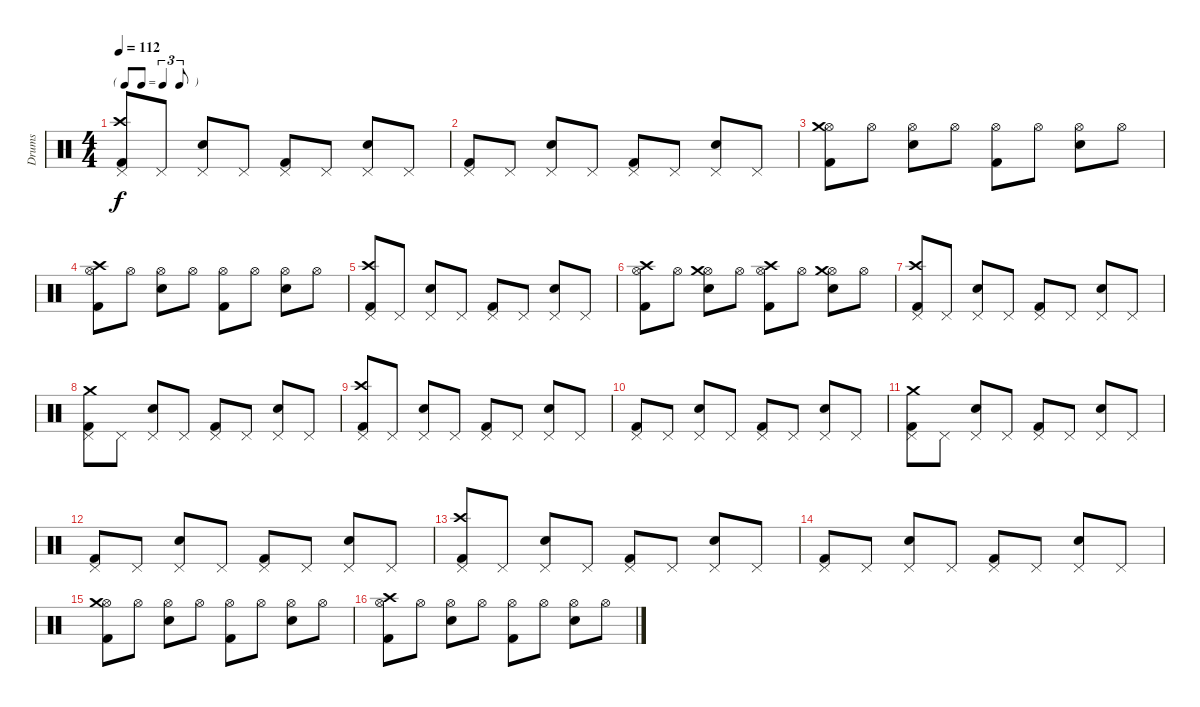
\track ("Drums" "Drums") {instrument percussion}
\staff {score}
\articulation defaults
\ts (4 4)
\tf triplet8th
\tempo 112
\clef neutral
\ks c
("Pedal Hi-Hat (hit)" "Crash high (hit)" "Kick (hit) 2").8{dy f} "Pedal Hi-Hat (hit)".8 ("Pedal Hi-Hat (hit)" "Snare (hit) 2").8 "Pedal Hi-Hat (hit)".8 ("Pedal Hi-Hat (hit)" "Kick (hit) 2").8 "Pedal Hi-Hat (hit)".8 ("Pedal Hi-Hat (hit)" "Snare (hit) 2").8 "Pedal Hi-Hat (hit)".8 |
("Pedal Hi-Hat (hit)" "Kick (hit) 2").8 "Pedal Hi-Hat (hit)".8 ("Pedal Hi-Hat (hit)" "Snare (hit) 2").8 "Pedal Hi-Hat (hit)".8 ("Pedal Hi-Hat (hit)" "Kick (hit) 2").8 "Pedal Hi-Hat (hit)".8 ("Pedal Hi-Hat (hit)" "Snare (hit) 2").8 "Pedal Hi-Hat (hit)".8 |
("Hi-Hat (open)" "Crash medium (hit)" "Kick (hit) 2").8 "Hi-Hat (open)".8 ("Hi-Hat (open)" "Snare (hit) 2").8 "Hi-Hat (open)".8 ("Hi-Hat (open)" "Kick (hit) 2").8 "Hi-Hat (open)".8 ("Hi-Hat (open)" "Snare (hit) 2").8 "Hi-Hat (open)".8 |
("Hi-Hat (open)" "Crash high (hit)" "Kick (hit) 2").8 "Hi-Hat (open)".8 ("Hi-Hat (open)" "Snare (hit) 2").8 "Hi-Hat (open)".8 ("Hi-Hat (open)" "Kick (hit) 2").8 "Hi-Hat (open)".8 ("Hi-Hat (open)" "Snare (hit) 2").8 "Hi-Hat (open)".8 |
("Pedal Hi-Hat (hit)" "Crash high (hit)" "Kick (hit) 2").8 "Pedal Hi-Hat (hit)".8 ("Pedal Hi-Hat (hit)" "Snare (hit) 2").8 "Pedal Hi-Hat (hit)".8 ("Pedal Hi-Hat (hit)" "Kick (hit) 2").8 "Pedal Hi-Hat (hit)".8 ("Pedal Hi-Hat (hit)" "Snare (hit) 2").8 "Pedal Hi-Hat (hit)".8 |
("Hi-Hat (open)" "Crash high (hit)" "Kick (hit) 2").8 "Hi-Hat (open)".8 ("Hi-Hat (open)" "Crash medium (hit)" "Snare (hit) 2").8 "Hi-Hat (open)".8 ("Hi-Hat (open)" "Crash high (hit)" "Kick (hit) 2").8 "Hi-Hat (open)".8 ("Hi-Hat (open)" "Crash medium (hit)" "Snare (hit) 2").8 "Hi-Hat (open)".8 |
("Pedal Hi-Hat (hit)" "Crash high (hit)" "Kick (hit) 2").8 "Pedal Hi-Hat (hit)".8 ("Pedal Hi-Hat (hit)" "Snare (hit) 2").8 "Pedal Hi-Hat (hit)".8 ("Pedal Hi-Hat (hit)" "Kick (hit) 2").8 "Pedal Hi-Hat (hit)".8 ("Pedal Hi-Hat (hit)" "Snare (hit) 2").8 "Pedal Hi-Hat (hit)".8 |
("Pedal Hi-Hat (hit)" "Crash medium (hit)" "Kick (hit) 2").8 "Pedal Hi-Hat (hit)".8 ("Pedal Hi-Hat (hit)" "Snare (hit) 2").8 "Pedal Hi-Hat (hit)".8 ("Pedal Hi-Hat (hit)" "Kick (hit) 2").8 "Pedal Hi-Hat (hit)".8 ("Pedal Hi-Hat (hit)" "Snare (hit) 2").8 "Pedal Hi-Hat (hit)".8 |
("Pedal Hi-Hat (hit)" "Crash high (hit)" "Kick (hit) 2").8 "Pedal Hi-Hat (hit)".8 ("Pedal Hi-Hat (hit)" "Snare (hit) 2").8 "Pedal Hi-Hat (hit)".8 ("Pedal Hi-Hat (hit)" "Kick (hit) 2").8 "Pedal Hi-Hat (hit)".8 ("Pedal Hi-Hat (hit)" "Snare (hit) 2").8 "Pedal Hi-Hat (hit)".8 |
("Pedal Hi-Hat (hit)" "Kick (hit) 2").8 "Pedal Hi-Hat (hit)".8 ("Pedal Hi-Hat (hit)" "Snare (hit) 2").8 "Pedal Hi-Hat (hit)".8 ("Pedal Hi-Hat (hit)" "Kick (hit) 2").8 "Pedal Hi-Hat (hit)".8 ("Pedal Hi-Hat (hit)" "Snare (hit) 2").8 "Pedal Hi-Hat (hit)".8 |
("Pedal Hi-Hat (hit)" "Crash medium (hit)" "Kick (hit) 2").8 "Pedal Hi-Hat (hit)".8 ("Pedal Hi-Hat (hit)" "Snare (hit) 2").8 "Pedal Hi-Hat (hit)".8 ("Pedal Hi-Hat (hit)" "Kick (hit) 2").8 "Pedal Hi-Hat (hit)".8 ("Pedal Hi-Hat (hit)" "Snare (hit) 2").8 "Pedal Hi-Hat (hit)".8 |
("Pedal Hi-Hat (hit)" "Kick (hit) 2").8 "Pedal Hi-Hat (hit)".8 ("Pedal Hi-Hat (hit)" "Snare (hit) 2").8 "Pedal Hi-Hat (hit)".8 ("Pedal Hi-Hat (hit)" "Kick (hit) 2").8 "Pedal Hi-Hat (hit)".8 ("Pedal Hi-Hat (hit)" "Snare (hit) 2").8 "Pedal Hi-Hat (hit)".8 |
("Pedal Hi-Hat (hit)" "Crash high (hit)" "Kick (hit) 2").8 "Pedal Hi-Hat (hit)".8 ("Pedal Hi-Hat (hit)" "Snare (hit) 2").8 "Pedal Hi-Hat (hit)".8 ("Pedal Hi-Hat (hit)" "Kick (hit) 2").8 "Pedal Hi-Hat (hit)".8 ("Pedal Hi-Hat (hit)" "Snare (hit) 2").8 "Pedal Hi-Hat (hit)".8 |
("Pedal Hi-Hat (hit)" "Kick (hit) 2").8 "Pedal Hi-Hat (hit)".8 ("Pedal Hi-Hat (hit)" "Snare (hit) 2").8 "Pedal Hi-Hat (hit)".8 ("Pedal Hi-Hat (hit)" "Kick (hit) 2").8 "Pedal Hi-Hat (hit)".8 ("Pedal Hi-Hat (hit)" "Snare (hit) 2").8 "Pedal Hi-Hat (hit)".8 |
("Hi-Hat (open)" "Crash medium (hit)" "Kick (hit) 2").8 "Hi-Hat (open)".8 ("Hi-Hat (open)" "Snare (hit) 2").8 "Hi-Hat (open)".8 ("Hi-Hat (open)" "Kick (hit) 2").8 "Hi-Hat (open)".8 ("Hi-Hat (open)" "Snare (hit) 2").8 "Hi-Hat (open)".8 |
("Hi-Hat (open)" "Crash high (hit)" "Kick (hit) 2").8 "Hi-Hat (open)".8 ("Hi-Hat (open)" "Snare (hit) 2").8 "Hi-Hat (open)".8 ("Hi-Hat (open)" "Kick (hit) 2").8 "Hi-Hat (open)".8 ("Hi-Hat (open)" "Snare (hit) 2").8 "Hi-Hat (open)".8
